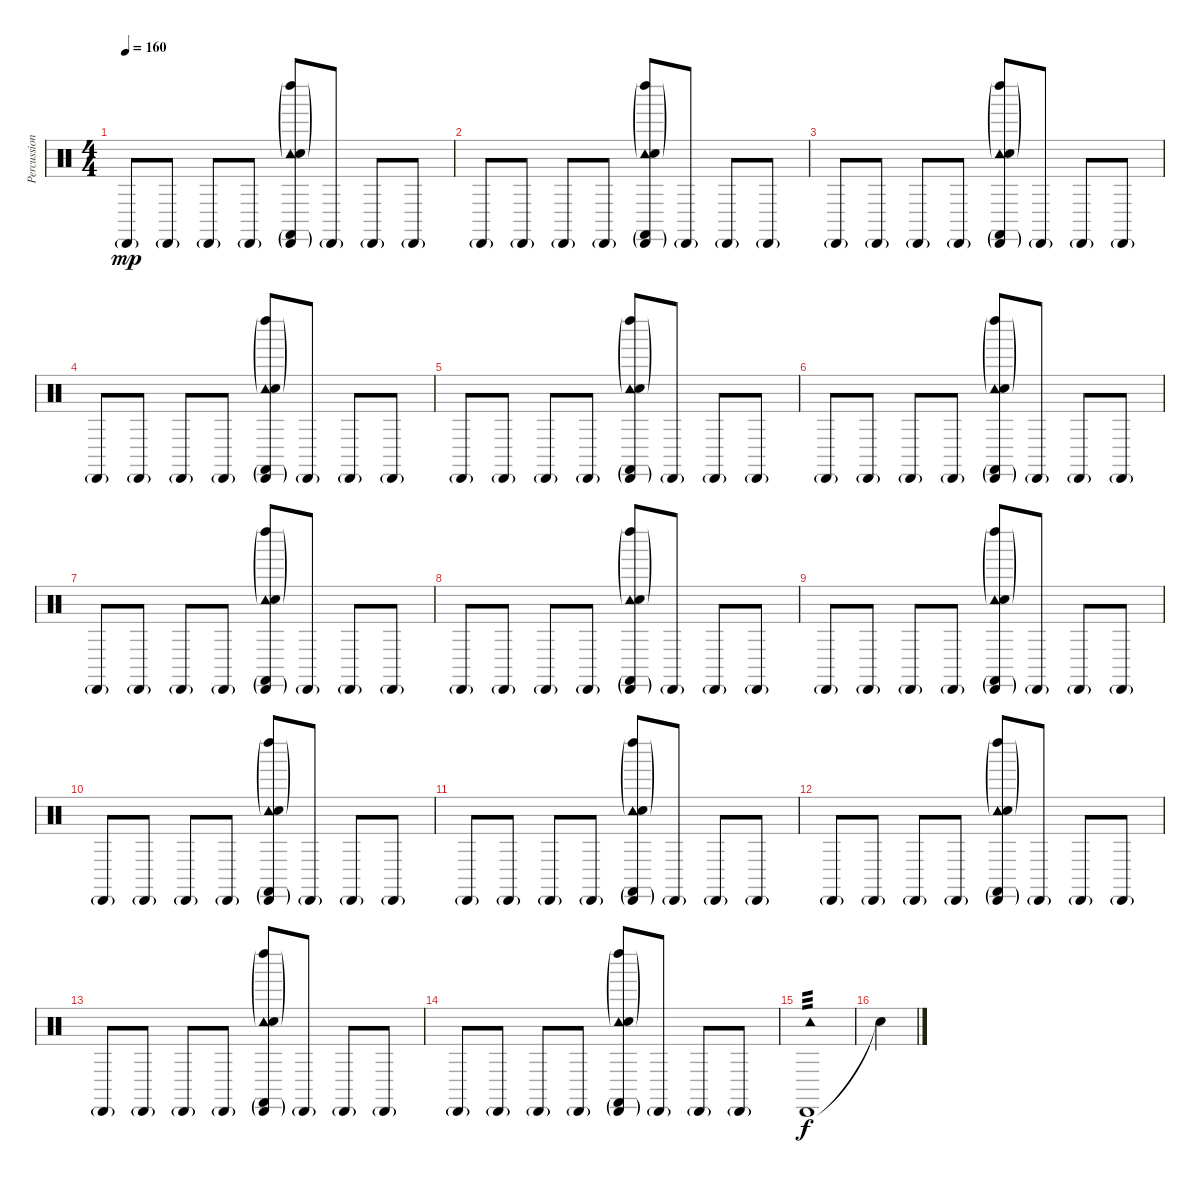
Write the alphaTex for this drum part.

\track ("Percussion" "Percussion") {instrument percussion}
\staff {score}
\articulation defaults
\ts (4 4)
\tempo 160
\clef neutral
\ks c "Cabasa (hit)"{g}.8{dy mp} "Cabasa (hit)"{g}.8 "Cabasa (hit)"{g}.8 "Cabasa (hit)"{g}.8
("Cabasa (hit)"{g} "Tambourine (hit)"{g} "Left Maraca (hit)"{g} "Castanets (hit)"{g} "Hand Clap (hit)").8{bd 60} "Cabasa (hit)"{g}.8 "Cabasa (hit)"{g}.8 "Cabasa (hit)"{g}.8 |
"Cabasa (hit)"{g}.8 "Cabasa (hit)"{g}.8 "Cabasa (hit)"{g}.8 "Cabasa (hit)"{g}.8 ("Cabasa (hit)"{g} "Tambourine (hit)"{g} "Left Maraca (hit)"{g} "Castanets (hit)"{g} "Hand Clap (hit)").8{bd 60} "Cabasa (hit)"{g}.8 "Cabasa (hit)"{g}.8 "Cabasa (hit)"{g}.8 |
"Cabasa (hit)"{g}.8 "Cabasa (hit)"{g}.8 "Cabasa (hit)"{g}.8 "Cabasa (hit)"{g}.8 ("Cabasa (hit)"{g} "Tambourine (hit)"{g} "Left Maraca (hit)"{g} "Castanets (hit)"{g} "Hand Clap (hit)").8{bd 60} "Cabasa (hit)"{g}.8 "Cabasa (hit)"{g}.8 "Cabasa (hit)"{g}.8 |
"Cabasa (hit)"{g}.8 "Cabasa (hit)"{g}.8 "Cabasa (hit)"{g}.8 "Cabasa (hit)"{g}.8 ("Cabasa (hit)"{g} "Tambourine (hit)"{g} "Left Maraca (hit)"{g} "Castanets (hit)"{g} "Hand Clap (hit)").8{bd 60} "Cabasa (hit)"{g}.8 "Cabasa (hit)"{g}.8 "Cabasa (hit)"{g}.8 |
"Cabasa (hit)"{g}.8 "Cabasa (hit)"{g}.8 "Cabasa (hit)"{g}.8 "Cabasa (hit)"{g}.8 ("Cabasa (hit)"{g} "Tambourine (hit)"{g} "Left Maraca (hit)"{g} "Castanets (hit)"{g} "Hand Clap (hit)").8{bd 60} "Cabasa (hit)"{g}.8 "Cabasa (hit)"{g}.8 "Cabasa (hit)"{g}.8 |
"Cabasa (hit)"{g}.8 "Cabasa (hit)"{g}.8 "Cabasa (hit)"{g}.8 "Cabasa (hit)"{g}.8 ("Cabasa (hit)"{g} "Tambourine (hit)"{g} "Left Maraca (hit)"{g} "Castanets (hit)"{g} "Hand Clap (hit)").8{bd 60} "Cabasa (hit)"{g}.8 "Cabasa (hit)"{g}.8 "Cabasa (hit)"{g}.8 |
"Cabasa (hit)"{g}.8 "Cabasa (hit)"{g}.8 "Cabasa (hit)"{g}.8 "Cabasa (hit)"{g}.8 ("Cabasa (hit)"{g} "Tambourine (hit)"{g} "Left Maraca (hit)"{g} "Castanets (hit)"{g} "Hand Clap (hit)").8{bd 60} "Cabasa (hit)"{g}.8 "Cabasa (hit)"{g}.8 "Cabasa (hit)"{g}.8 |
"Cabasa (hit)"{g}.8 "Cabasa (hit)"{g}.8 "Cabasa (hit)"{g}.8 "Cabasa (hit)"{g}.8 ("Cabasa (hit)"{g} "Tambourine (hit)"{g} "Left Maraca (hit)"{g} "Castanets (hit)"{g} "Hand Clap (hit)").8{bd 60} "Cabasa (hit)"{g}.8 "Cabasa (hit)"{g}.8 "Cabasa (hit)"{g}.8 |
"Cabasa (hit)"{g}.8 "Cabasa (hit)"{g}.8 "Cabasa (hit)"{g}.8 "Cabasa (hit)"{g}.8 ("Cabasa (hit)"{g} "Tambourine (hit)"{g} "Left Maraca (hit)"{g} "Castanets (hit)"{g} "Hand Clap (hit)").8{bd 60} "Cabasa (hit)"{g}.8 "Cabasa (hit)"{g}.8 "Cabasa (hit)"{g}.8 |
"Cabasa (hit)"{g}.8 "Cabasa (hit)"{g}.8 "Cabasa (hit)"{g}.8 "Cabasa (hit)"{g}.8 ("Cabasa (hit)"{g} "Tambourine (hit)"{g} "Left Maraca (hit)"{g} "Castanets (hit)"{g} "Hand Clap (hit)").8{bd 60} "Cabasa (hit)"{g}.8 "Cabasa (hit)"{g}.8 "Cabasa (hit)"{g}.8 |
"Cabasa (hit)"{g}.8 "Cabasa (hit)"{g}.8 "Cabasa (hit)"{g}.8 "Cabasa (hit)"{g}.8 ("Cabasa (hit)"{g} "Tambourine (hit)"{g} "Left Maraca (hit)"{g} "Castanets (hit)"{g} "Hand Clap (hit)").8{bd 60} "Cabasa (hit)"{g}.8 "Cabasa (hit)"{g}.8 "Cabasa (hit)"{g}.8 |
"Cabasa (hit)"{g}.8 "Cabasa (hit)"{g}.8 "Cabasa (hit)"{g}.8 "Cabasa (hit)"{g}.8 ("Cabasa (hit)"{g} "Tambourine (hit)"{g} "Left Maraca (hit)"{g} "Castanets (hit)"{g} "Hand Clap (hit)").8{bd 60} "Cabasa (hit)"{g}.8 "Cabasa (hit)"{g}.8 "Cabasa (hit)"{g}.8 |
"Cabasa (hit)"{g}.8 "Cabasa (hit)"{g}.8 "Cabasa (hit)"{g}.8 "Cabasa (hit)"{g}.8 ("Cabasa (hit)"{g} "Tambourine (hit)"{g} "Left Maraca (hit)"{g} "Castanets (hit)"{g} "Hand Clap (hit)").8{bd 60} "Cabasa (hit)"{g}.8 "Cabasa (hit)"{g}.8 "Cabasa (hit)"{g}.8 |
"Cabasa (hit)"{g}.8 "Cabasa (hit)"{g}.8 "Cabasa (hit)"{g}.8 "Cabasa (hit)"{g}.8 ("Cabasa (hit)"{g} "Tambourine (hit)"{g} "Left Maraca (hit)"{g} "Castanets (hit)"{g} "Hand Clap (hit)").8{bd 60} "Cabasa (hit)"{g}.8 "Cabasa (hit)"{g}.8 "Cabasa (hit)"{g}.8 |
("Cabasa (hit)" "Tambourine (hit)").1{tp 3 dy f} |
"Snare (hit)"{t}.4
